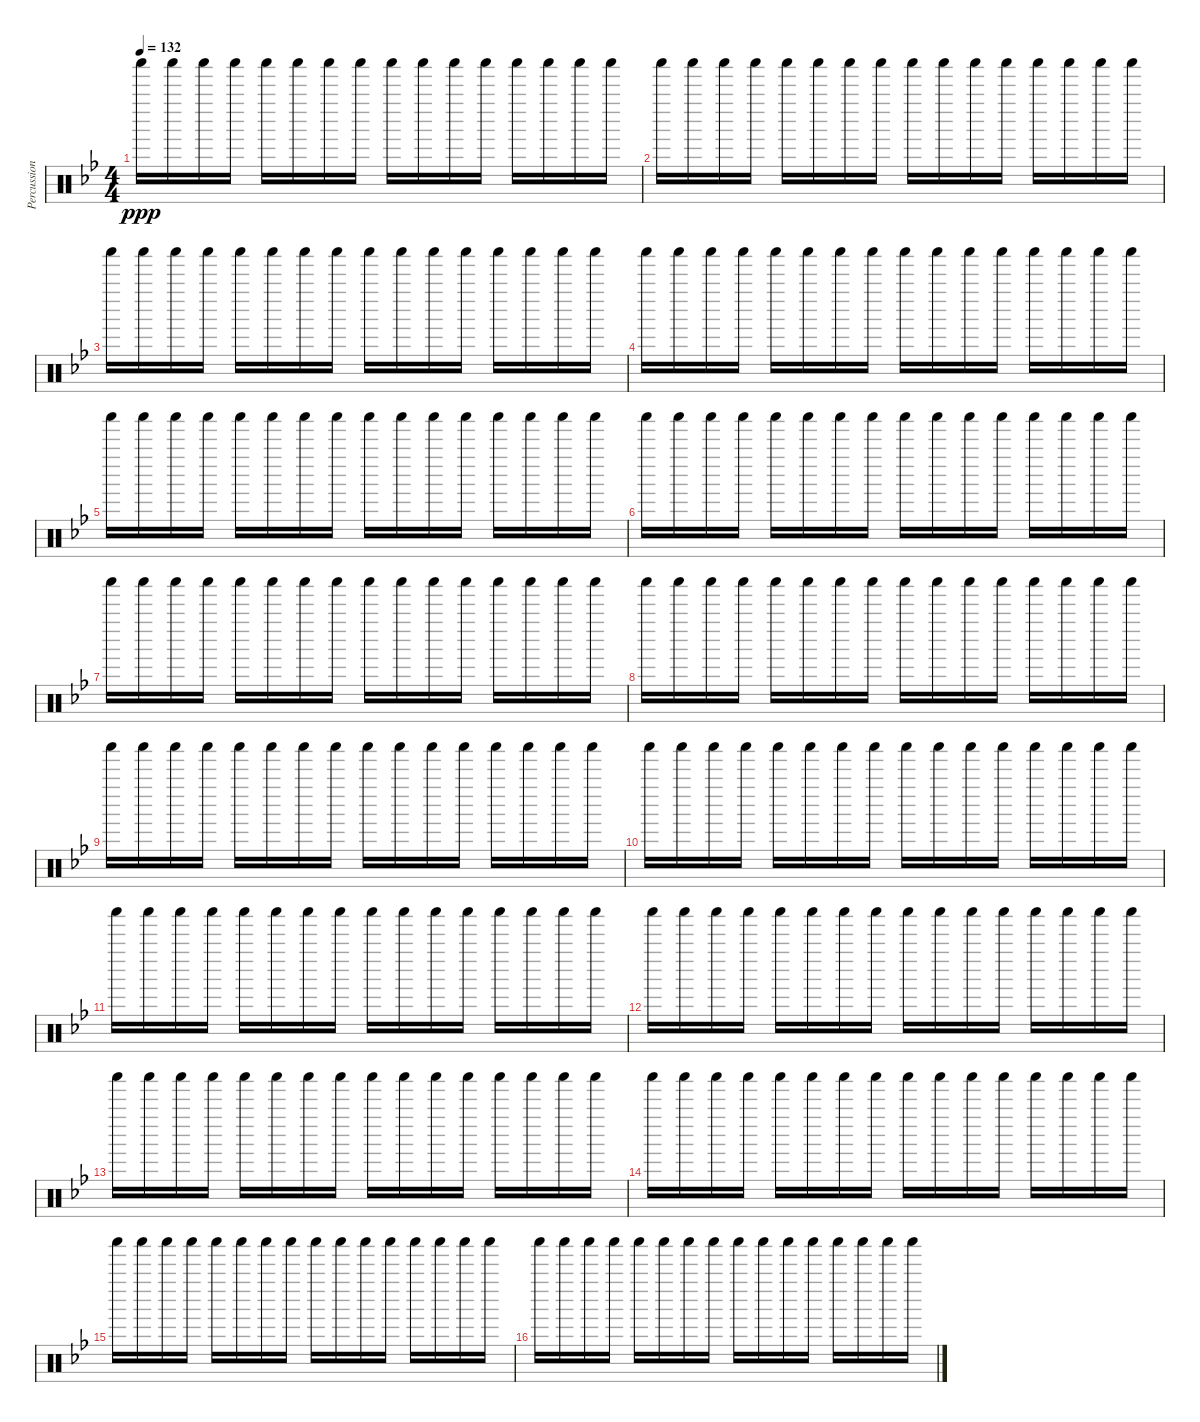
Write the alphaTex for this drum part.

\track ("Percussion" "Percussion") {instrument percussion}
\staff {score}
\articulation defaults
\ts (4 4)
\tempo 132
\clef neutral
\ks bb "Shaker (hit)".16{dy ppp} "Shaker (hit)".16 "Shaker (hit)".16 "Shaker (hit)".16 "Shaker (hit)".16 "Shaker (hit)".16 "Shaker (hit)".16 "Shaker (hit)".16 "Shaker (hit)".16 "Shaker (hit)".16 "Shaker (hit)".16 "Shaker (hit)".16 "Shaker (hit)".16 "Shaker (hit)".16 "Shaker (hit)".16 "Shaker (hit)".16
|
"Shaker (hit)".16 "Shaker (hit)".16 "Shaker (hit)".16 "Shaker (hit)".16 "Shaker (hit)".16 "Shaker (hit)".16 "Shaker (hit)".16 "Shaker (hit)".16 "Shaker (hit)".16 "Shaker (hit)".16 "Shaker (hit)".16 "Shaker (hit)".16 "Shaker (hit)".16 "Shaker (hit)".16 "Shaker (hit)".16 "Shaker (hit)".16 |
"Shaker (hit)".16 "Shaker (hit)".16 "Shaker (hit)".16 "Shaker (hit)".16 "Shaker (hit)".16 "Shaker (hit)".16 "Shaker (hit)".16 "Shaker (hit)".16 "Shaker (hit)".16 "Shaker (hit)".16 "Shaker (hit)".16 "Shaker (hit)".16 "Shaker (hit)".16 "Shaker (hit)".16 "Shaker (hit)".16 "Shaker (hit)".16 |
"Shaker (hit)".16 "Shaker (hit)".16 "Shaker (hit)".16 "Shaker (hit)".16 "Shaker (hit)".16 "Shaker (hit)".16 "Shaker (hit)".16 "Shaker (hit)".16 "Shaker (hit)".16 "Shaker (hit)".16 "Shaker (hit)".16 "Shaker (hit)".16 "Shaker (hit)".16 "Shaker (hit)".16 "Shaker (hit)".16 "Shaker (hit)".16 |
"Shaker (hit)".16 "Shaker (hit)".16 "Shaker (hit)".16 "Shaker (hit)".16 "Shaker (hit)".16 "Shaker (hit)".16 "Shaker (hit)".16 "Shaker (hit)".16 "Shaker (hit)".16 "Shaker (hit)".16 "Shaker (hit)".16 "Shaker (hit)".16 "Shaker (hit)".16 "Shaker (hit)".16 "Shaker (hit)".16 "Shaker (hit)".16 |
"Shaker (hit)".16 "Shaker (hit)".16 "Shaker (hit)".16 "Shaker (hit)".16 "Shaker (hit)".16 "Shaker (hit)".16 "Shaker (hit)".16 "Shaker (hit)".16 "Shaker (hit)".16 "Shaker (hit)".16 "Shaker (hit)".16 "Shaker (hit)".16 "Shaker (hit)".16 "Shaker (hit)".16 "Shaker (hit)".16 "Shaker (hit)".16 |
"Shaker (hit)".16 "Shaker (hit)".16 "Shaker (hit)".16 "Shaker (hit)".16 "Shaker (hit)".16 "Shaker (hit)".16 "Shaker (hit)".16 "Shaker (hit)".16 "Shaker (hit)".16 "Shaker (hit)".16 "Shaker (hit)".16 "Shaker (hit)".16 "Shaker (hit)".16 "Shaker (hit)".16 "Shaker (hit)".16 "Shaker (hit)".16 |
"Shaker (hit)".16 "Shaker (hit)".16 "Shaker (hit)".16 "Shaker (hit)".16 "Shaker (hit)".16 "Shaker (hit)".16 "Shaker (hit)".16 "Shaker (hit)".16 "Shaker (hit)".16 "Shaker (hit)".16 "Shaker (hit)".16 "Shaker (hit)".16 "Shaker (hit)".16 "Shaker (hit)".16 "Shaker (hit)".16 "Shaker (hit)".16 |
"Shaker (hit)".16 "Shaker (hit)".16 "Shaker (hit)".16 "Shaker (hit)".16 "Shaker (hit)".16 "Shaker (hit)".16 "Shaker (hit)".16 "Shaker (hit)".16 "Shaker (hit)".16 "Shaker (hit)".16 "Shaker (hit)".16 "Shaker (hit)".16 "Shaker (hit)".16 "Shaker (hit)".16 "Shaker (hit)".16 "Shaker (hit)".16 |
"Shaker (hit)".16 "Shaker (hit)".16 "Shaker (hit)".16 "Shaker (hit)".16 "Shaker (hit)".16 "Shaker (hit)".16 "Shaker (hit)".16 "Shaker (hit)".16 "Shaker (hit)".16 "Shaker (hit)".16 "Shaker (hit)".16 "Shaker (hit)".16 "Shaker (hit)".16 "Shaker (hit)".16 "Shaker (hit)".16 "Shaker (hit)".16 |
"Shaker (hit)".16 "Shaker (hit)".16 "Shaker (hit)".16 "Shaker (hit)".16 "Shaker (hit)".16 "Shaker (hit)".16 "Shaker (hit)".16 "Shaker (hit)".16 "Shaker (hit)".16 "Shaker (hit)".16 "Shaker (hit)".16 "Shaker (hit)".16 "Shaker (hit)".16 "Shaker (hit)".16 "Shaker (hit)".16 "Shaker (hit)".16 |
"Shaker (hit)".16 "Shaker (hit)".16 "Shaker (hit)".16 "Shaker (hit)".16 "Shaker (hit)".16 "Shaker (hit)".16 "Shaker (hit)".16 "Shaker (hit)".16 "Shaker (hit)".16 "Shaker (hit)".16 "Shaker (hit)".16 "Shaker (hit)".16 "Shaker (hit)".16 "Shaker (hit)".16 "Shaker (hit)".16 "Shaker (hit)".16 |
"Shaker (hit)".16 "Shaker (hit)".16 "Shaker (hit)".16 "Shaker (hit)".16 "Shaker (hit)".16 "Shaker (hit)".16 "Shaker (hit)".16 "Shaker (hit)".16 "Shaker (hit)".16 "Shaker (hit)".16 "Shaker (hit)".16 "Shaker (hit)".16 "Shaker (hit)".16 "Shaker (hit)".16 "Shaker (hit)".16 "Shaker (hit)".16 |
"Shaker (hit)".16 "Shaker (hit)".16 "Shaker (hit)".16 "Shaker (hit)".16 "Shaker (hit)".16 "Shaker (hit)".16 "Shaker (hit)".16 "Shaker (hit)".16 "Shaker (hit)".16 "Shaker (hit)".16 "Shaker (hit)".16 "Shaker (hit)".16 "Shaker (hit)".16 "Shaker (hit)".16 "Shaker (hit)".16 "Shaker (hit)".16 |
"Shaker (hit)".16 "Shaker (hit)".16 "Shaker (hit)".16 "Shaker (hit)".16 "Shaker (hit)".16 "Shaker (hit)".16 "Shaker (hit)".16 "Shaker (hit)".16 "Shaker (hit)".16 "Shaker (hit)".16 "Shaker (hit)".16 "Shaker (hit)".16 "Shaker (hit)".16 "Shaker (hit)".16 "Shaker (hit)".16 "Shaker (hit)".16 |
"Shaker (hit)".16 "Shaker (hit)".16 "Shaker (hit)".16 "Shaker (hit)".16 "Shaker (hit)".16 "Shaker (hit)".16 "Shaker (hit)".16 "Shaker (hit)".16 "Shaker (hit)".16 "Shaker (hit)".16 "Shaker (hit)".16 "Shaker (hit)".16 "Shaker (hit)".16 "Shaker (hit)".16 "Shaker (hit)".16 "Shaker (hit)".16
